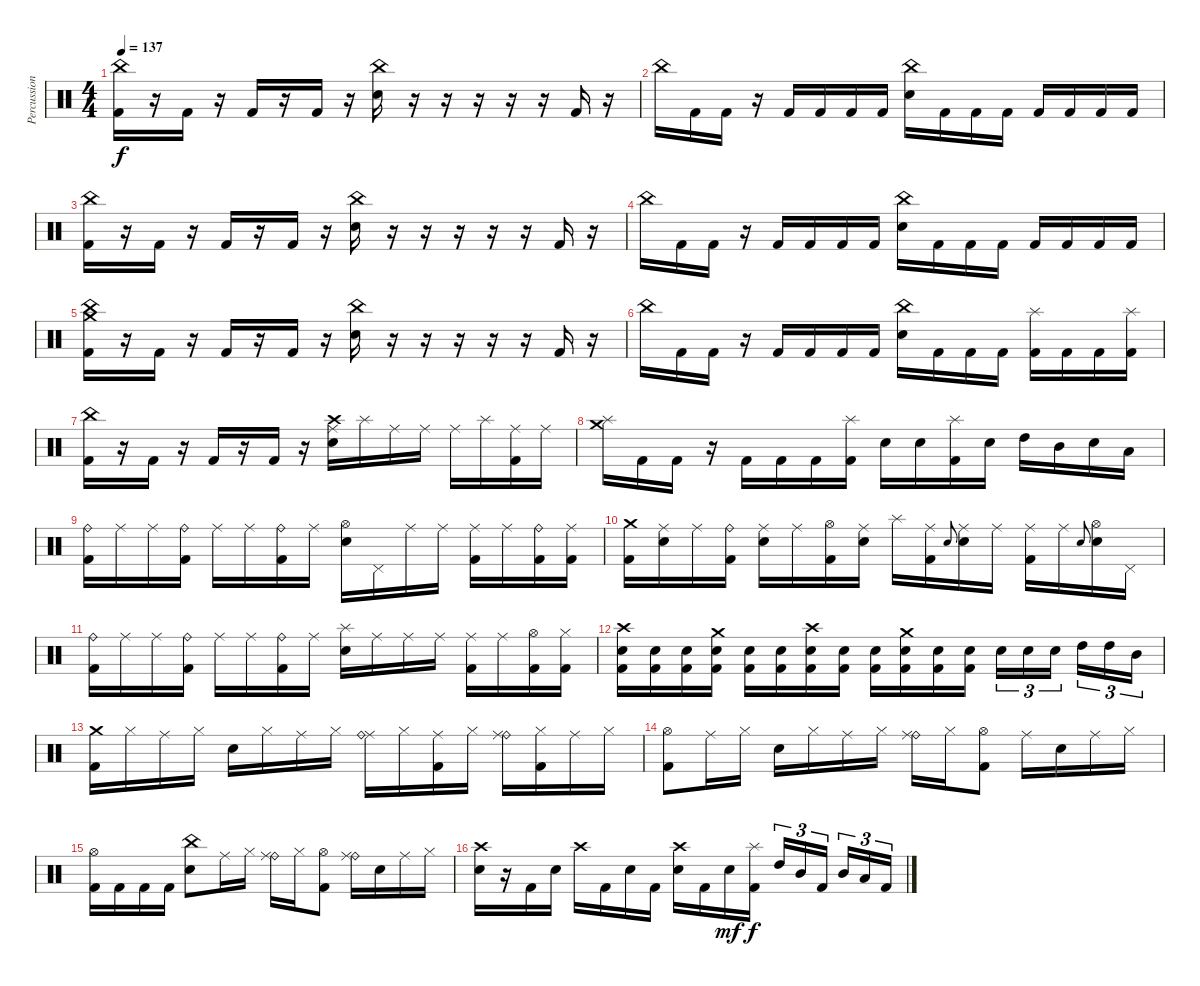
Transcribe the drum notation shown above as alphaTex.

\track ("Percussion" "Percussion") {instrument percussion}
\staff {score}
\articulation defaults
\ts (4 4)
\tempo 137
\clef neutral
\ks c
("China (hit)" "Kick (hit) 2").16{dy f} r.16 "Kick (hit) 2".16 r.16 "Kick (hit) 2".16 r.16 "Kick (hit) 2".16 r.16 ("China (hit)" "Electric Snare (hit)").16 r.16 r.16 r.16 r.16 r.16 "Kick (hit) 2".16 r.16 |
"China (hit)".16 "Kick (hit) 2".16 "Kick (hit) 2".16 r.16 "Kick (hit) 2".16 "Kick (hit) 2".16 "Kick (hit) 2".16 "Kick (hit) 2".16 ("China (hit)" "Electric Snare (hit)").16 "Kick (hit) 2".16 "Kick (hit) 2".16 "Kick (hit) 2".16 "Kick (hit) 2".16 "Kick (hit) 2".16 "Kick (hit) 2".16 "Kick (hit) 2".16 |
("China (hit)" "Kick (hit) 2").16 r.16 "Kick (hit) 2".16 r.16 "Kick (hit) 2".16 r.16 "Kick (hit) 2".16 r.16 ("China (hit)" "Electric Snare (hit)").16 r.16 r.16 r.16 r.16 r.16 "Kick (hit) 2".16 r.16 |
"China (hit)".16 "Kick (hit) 2".16 "Kick (hit) 2".16 r.16 "Kick (hit) 2".16 "Kick (hit) 2".16 "Kick (hit) 2".16 "Kick (hit) 2".16 ("China (hit)" "Electric Snare (hit)").16 "Kick (hit) 2".16 "Kick (hit) 2".16 "Kick (hit) 2".16 "Kick (hit) 2".16 "Kick (hit) 2".16 "Kick (hit) 2".16 "Kick (hit) 2".16 |
("Crash medium (hit)" "China (hit)" "Kick (hit) 2").16 r.16 "Kick (hit) 2".16 r.16 "Kick (hit) 2".16 r.16 "Kick (hit) 2".16 r.16 ("China (hit)" "Electric Snare (hit)").16 r.16 r.16 r.16 r.16 r.16 "Kick (hit) 2".16 r.16 |
"China (hit)".16 "Kick (hit) 2".16 "Kick (hit) 2".16 r.16 "Kick (hit) 2".16 "Kick (hit) 2".16 "Kick (hit) 2".16 "Kick (hit) 2".16 ("China (hit)" "Electric Snare (hit)").16 "Kick (hit) 2".16 "Kick (hit) 2".16 "Kick (hit) 2".16 ("Splash (hit)" "Kick (hit) 2").16 "Kick (hit) 2".16 "Kick (hit) 2".16 ("Splash (hit)" "Kick (hit) 2").16 |
("China (hit)" "Kick (hit) 2").16 r.16 "Kick (hit) 2".16 r.16 "Kick (hit) 2".16 r.16 "Kick (hit) 2".16 r.16 ("Crash high (hit)" "Ride (middle)" "Electric Snare (hit)").16 "Splash (hit)".16 "Ride (middle)".16 "Ride (middle)".16 "Ride (middle)".16 "Splash (hit)".16 ("Ride (middle)" "Kick (hit) 2").16 "Ride (middle)".16 |
("Crash medium (hit)" "Splash (hit)").16 "Kick (hit) 2".16 "Kick (hit) 2".16 r.16 "Kick (hit) 2".16 "Kick (hit) 2".16 "Kick (hit) 2".16 ("Splash (hit)" "Kick (hit) 2").16 "Electric Snare (hit)".16 "Electric Snare (hit)".16 ("Splash (hit)" "Kick (hit) 2").16 "Electric Snare (hit)".16 "High Tom (hit)".16 "Mid Tom (hit)".16 "Electric Snare (hit)".16 "Low Tom (hit)".16 |
("Ride (bell)" "Kick (hit) 2").16 "Ride (middle)".16 "Ride (middle)".16 ("Ride (bell)" "Kick (hit) 2").16 "Ride (middle)".16 "Ride (middle)".16 ("Ride (bell)" "Kick (hit) 2").16 "Ride (middle)".16 ("Hi-Hat (open)" "Electric Snare (hit)").16 "Pedal Hi-Hat (hit)".16 "Ride (middle)".16 "Ride (middle)".16 ("Ride (middle)" "Kick (hit) 2").16 "Ride (middle)".16 ("Ride (bell)" "Kick (hit) 2").16 ("Ride (middle)" "Kick (hit) 2").16 |
("Crash medium (hit)" "Kick (hit) 2").16 ("Ride (middle)" "Electric Snare (hit)").16 "Ride (middle)".16 ("Ride (bell)" "Kick (hit) 2").16 ("Ride (middle)" "Electric Snare (hit)").16 "Ride (middle)".16 ("Hi-Hat (open)" "Kick (hit) 2").16 ("Ride (middle)" "Electric Snare (hit)").16 "Splash (hit)".16 ("Ride (middle)" "Kick (hit) 2").16 "Electric Snare (hit)"{h}.8{gr onbeat} ("Ride (middle)" "Electric Snare (hit)").16 "Ride (middle)".16 ("Ride (middle)" "Kick (hit) 2").16 "Ride (middle)".16 "Electric Snare (hit)"{h}.8{gr onbeat} ("Hi-Hat (open)" "Electric Snare (hit)").16 "Pedal Hi-Hat (hit)".16 |
("Ride (bell)" "Kick (hit) 2").16 "Ride (middle)".16 "Ride (middle)".16 ("Ride (bell)" "Kick (hit) 2").16 "Ride (middle)".16 "Ride (middle)".16 ("Ride (bell)" "Kick (hit) 2").16 "Ride (middle)".16 ("Splash (hit)" "Electric Snare (hit)").16 "Ride (middle)".16 "Ride (middle)".16 "Ride (middle)".16 ("Ride (middle)" "Kick (hit) 2").16 "Ride (middle)".16 ("Hi-Hat (open)" "Kick (hit) 2").16 ("Hi-Hat (closed)" "Kick (hit) 2").16 |
("Crash high (hit)" "Electric Snare (hit)" "Kick (hit) 2").16 ("Electric Snare (hit)" "Kick (hit) 2").16 ("Electric Snare (hit)" "Kick (hit) 2").16 ("Crash medium (hit)" "Electric Snare (hit)" "Kick (hit) 2").16 ("Electric Snare (hit)" "Kick (hit) 2").16 ("Electric Snare (hit)" "Kick (hit) 2").16 ("Crash high (hit)" "Electric Snare (hit)" "Kick (hit) 2").16 ("Electric Snare (hit)" "Kick (hit) 2").16 ("Electric Snare (hit)" "Kick (hit) 2").16 ("Crash medium (hit)" "Electric Snare (hit)" "Kick (hit) 2").16 ("Electric Snare (hit)" "Kick (hit) 2").16 ("Electric Snare (hit)" "Kick (hit) 2").16 "Electric Snare (hit)".16{tu (3 2)} "Electric Snare (hit)".16{tu (3 2)} "Electric Snare (hit)".16{tu (3 2) beam splitsecondary} "High Tom (hit)".16{tu (3 2)} "High Tom (hit)".16{tu (3 2)} "Mid Tom (hit)".16{tu (3 2)} |
("Crash medium (hit)" "Kick (hit) 2").16 "Hi-Hat (closed)".16 "Ride (middle)".16 "Hi-Hat (closed)".16 "Electric Snare (hit)".16 "Hi-Hat (closed)".16 "Ride (middle)".16 "Hi-Hat (closed)".16 ("Ride (middle)" "Ride (bell)").16 "Hi-Hat (closed)".16 ("Ride (middle)" "Kick (hit) 2").16 "Hi-Hat (closed)".16 ("Ride (bell)" "Ride (middle)").16 ("Hi-Hat (closed)" "Kick (hit) 2").16 "Ride (middle)".16 "Hi-Hat (closed)".16 |
("Hi-Hat (open)" "Kick (hit) 2").8 "Ride (middle)".16 "Hi-Hat (closed)".16 "Electric Snare (hit)".16 "Hi-Hat (closed)".16 "Ride (middle)".16 "Hi-Hat (closed)".16 ("Ride (bell)" "Ride (middle)").16 "Hi-Hat (closed)".16 ("Hi-Hat (open)" "Kick (hit) 2").8 "Ride (middle)".16 "Electric Snare (hit)".16 "Ride (middle)".16 "Hi-Hat (closed)".16 |
("Hi-Hat (open)" "Kick (hit) 2").16 "Kick (hit) 2".16 "Kick (hit) 2".16 "Kick (hit) 2".16 ("China (hit)" "Electric Snare (hit)").8 "Ride (middle)".16 "Hi-Hat (closed)".16 ("Ride (bell)" "Ride (middle)").16 "Hi-Hat (closed)".16 ("Hi-Hat (open)" "Kick (hit) 2").8 ("Ride (bell)" "Ride (middle)").16 "Electric Snare (hit)".16 "Ride (middle)".16 "Hi-Hat (closed)".16 |
("Crash high (hit)" "Electric Snare (hit)").16 r.16 "Kick (hit) 2".16 "Electric Snare (hit)".16 "Crash high (hit)".16 "Kick (hit) 2".16 "Electric Snare (hit)".16 "Kick (hit) 2".16 ("Crash high (hit)" "Electric Snare (hit)").16 "Kick (hit) 2".16 "Electric Snare (hit)".16{dy mf} ("Splash (hit)" "Kick (hit) 2").16{dy f} "High Tom (hit)".16{tu (3 2)} "Mid Tom (hit)".16{tu (3 2)} "Kick (hit) 2".16{tu (3 2) beam splitsecondary} "Mid Tom (hit)".16{tu (3 2)} "Low Tom (hit)".16{tu (3 2)} "Kick (hit) 2".16{tu (3 2)}
